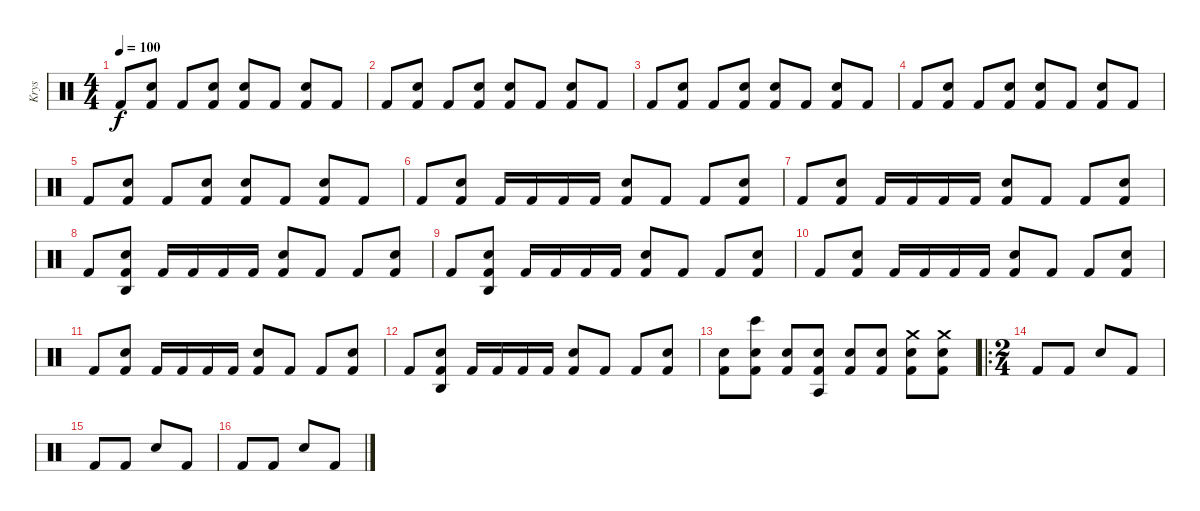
\track ("Krys" "Krys") {instrument percussion}
\staff {score}
\articulation defaults
\ts (4 4)
\tempo 100
\clef neutral
\ks c "Kick (hit) 2".8{dy f}
("Snare (hit) 2" "Kick (hit) 2").8 "Kick (hit) 2".8 ("Snare (hit) 2" "Kick (hit) 2").8 ("Snare (hit) 2" "Kick (hit) 2").8 "Kick (hit) 2".8 ("Snare (hit) 2" "Kick (hit) 2").8 "Kick (hit) 2".8 |
"Kick (hit) 2".8 ("Snare (hit) 2" "Kick (hit) 2").8 "Kick (hit) 2".8 ("Snare (hit) 2" "Kick (hit) 2").8 ("Snare (hit) 2" "Kick (hit) 2").8 "Kick (hit) 2".8 ("Snare (hit) 2" "Kick (hit) 2").8 "Kick (hit) 2".8 |
"Kick (hit) 2".8 ("Snare (hit) 2" "Kick (hit) 2").8 "Kick (hit) 2".8 ("Snare (hit) 2" "Kick (hit) 2").8 ("Snare (hit) 2" "Kick (hit) 2").8 "Kick (hit) 2".8 ("Snare (hit) 2" "Kick (hit) 2").8 "Kick (hit) 2".8 |
"Kick (hit) 2".8 ("Snare (hit) 2" "Kick (hit) 2").8 "Kick (hit) 2".8 ("Snare (hit) 2" "Kick (hit) 2").8 ("Snare (hit) 2" "Kick (hit) 2").8 "Kick (hit) 2".8 ("Snare (hit) 2" "Kick (hit) 2").8 "Kick (hit) 2".8 |
"Kick (hit) 2".8 ("Snare (hit) 2" "Kick (hit) 2").8 "Kick (hit) 2".8 ("Snare (hit) 2" "Kick (hit) 2").8 ("Snare (hit) 2" "Kick (hit) 2").8 "Kick (hit) 2".8 ("Snare (hit) 2" "Kick (hit) 2").8 "Kick (hit) 2".8 |
"Kick (hit) 2".8 ("Snare (hit) 2" "Kick (hit) 2").8 "Kick (hit) 2".16 "Kick (hit) 2".16 "Kick (hit) 2".16 "Kick (hit) 2".16 ("Snare (hit) 2" "Kick (hit) 2").8 "Kick (hit) 2".8 "Kick (hit) 2".8 ("Snare (hit) 2" "Kick (hit) 2").8 |
"Kick (hit) 2".8 ("Snare (hit) 2" "Kick (hit) 2").8 "Kick (hit) 2".16 "Kick (hit) 2".16 "Kick (hit) 2".16 "Kick (hit) 2".16 ("Snare (hit) 2" "Kick (hit) 2").8 "Kick (hit) 2".8 "Kick (hit) 2".8 ("Snare (hit) 2" "Kick (hit) 2").8 |
"Kick (hit) 2".8 ("Snare (hit) 2" "Agogo high (hit)" "Kick (hit) 2").8 "Kick (hit) 2".16 "Kick (hit) 2".16 "Kick (hit) 2".16 "Kick (hit) 2".16 ("Snare (hit) 2" "Kick (hit) 2").8 "Kick (hit) 2".8 "Kick (hit) 2".8 ("Snare (hit) 2" "Kick (hit) 2").8 |
"Kick (hit) 2".8 ("Snare (hit) 2" "Agogo high (hit)" "Kick (hit) 2").8 "Kick (hit) 2".16 "Kick (hit) 2".16 "Kick (hit) 2".16 "Kick (hit) 2".16 ("Snare (hit) 2" "Kick (hit) 2").8 "Kick (hit) 2".8 "Kick (hit) 2".8 ("Snare (hit) 2" "Kick (hit) 2").8 |
"Kick (hit) 2".8 ("Snare (hit) 2" "Kick (hit) 2").8 "Kick (hit) 2".16 "Kick (hit) 2".16 "Kick (hit) 2".16 "Kick (hit) 2".16 ("Snare (hit) 2" "Kick (hit) 2").8 "Kick (hit) 2".8 "Kick (hit) 2".8 ("Snare (hit) 2" "Kick (hit) 2").8 |
"Kick (hit) 2".8 ("Snare (hit) 2" "Kick (hit) 2").8 "Kick (hit) 2".16 "Kick (hit) 2".16 "Kick (hit) 2".16 "Kick (hit) 2".16 ("Snare (hit) 2" "Kick (hit) 2").8 "Kick (hit) 2".8 "Kick (hit) 2".8 ("Snare (hit) 2" "Kick (hit) 2").8 |
"Kick (hit) 2".8 ("Snare (hit) 2" "Agogo high (hit)" "Kick (hit) 2").8 "Kick (hit) 2".16 "Kick (hit) 2".16 "Kick (hit) 2".16 "Kick (hit) 2".16 ("Snare (hit) 2" "Kick (hit) 2").8 "Kick (hit) 2".8 "Kick (hit) 2".8 ("Snare (hit) 2" "Kick (hit) 2").8 |
("Snare (hit) 2" "Kick (hit) 2").8 ("Bongo High (hit)" "Snare (hit) 2" "Kick (hit) 2").8 ("Snare (hit) 2" "Kick (hit) 2").8 ("Agogo tow (hit)" "Snare (hit) 2" "Kick (hit) 2").8 ("Snare (hit) 2" "Kick (hit) 2").8 ("Snare (hit) 2" "Kick (hit) 2").8 ("Crash medium (hit)" "Snare (hit) 2" "Kick (hit) 2").8 ("Crash medium (hit)" "Snare (hit) 2" "Kick (hit) 2").8 |
\ro
\ts (2 4)
"Kick (hit) 2".8 "Kick (hit) 2".8 "Snare (hit) 2".8 "Kick (hit) 2".8 |
"Kick (hit) 2".8 "Kick (hit) 2".8 "Snare (hit) 2".8 "Kick (hit) 2".8 |
"Kick (hit) 2".8 "Kick (hit) 2".8 "Snare (hit) 2".8 "Kick (hit) 2".8
